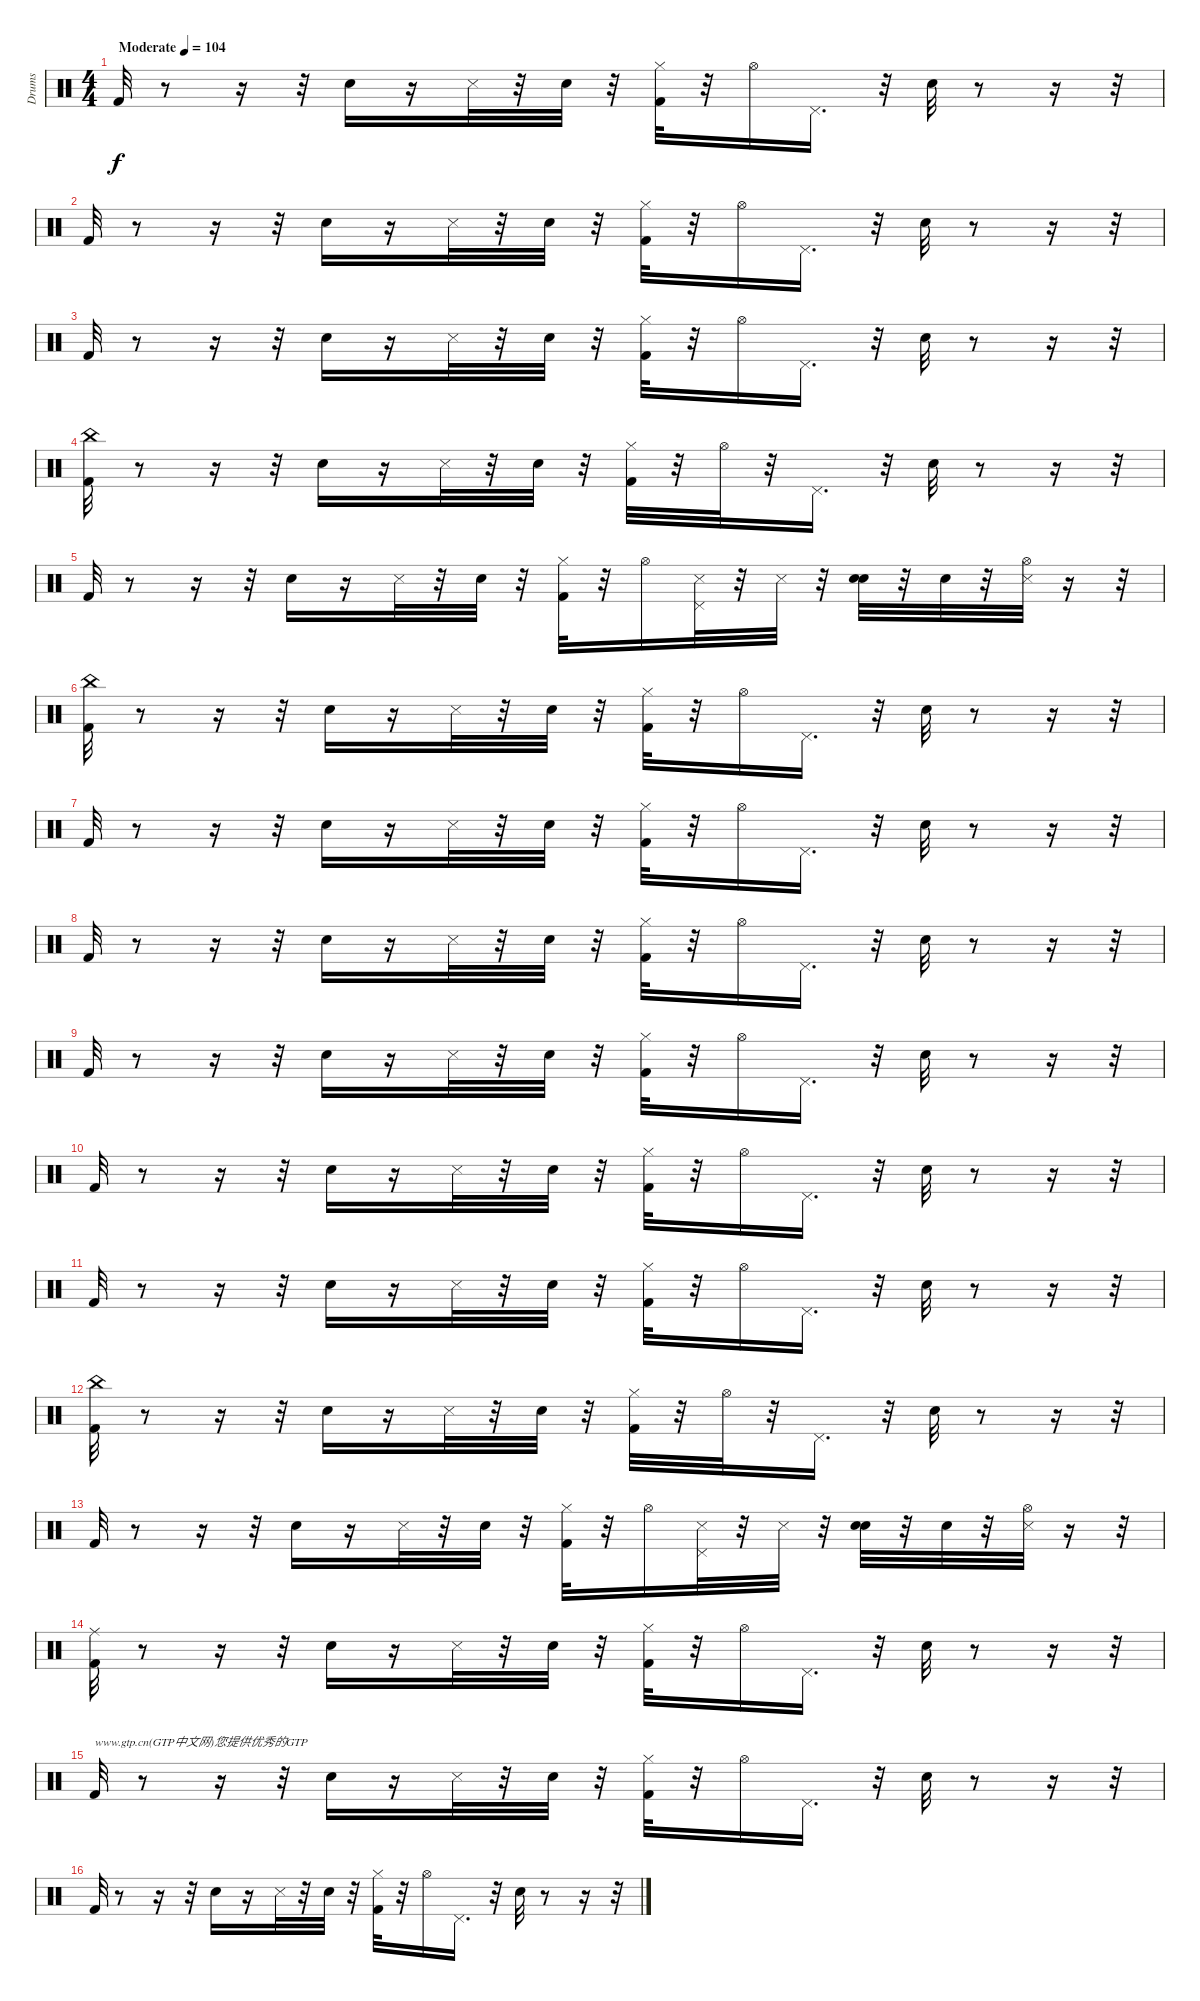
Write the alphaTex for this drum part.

\track ("Drums" "Drums") {instrument percussion}
\staff {score}
\articulation defaults
\ts (4 4)
\tempo (104 "Moderate")
\clef neutral
\ks c "Kick (hit) 2".32{dy f}
r.8 r.16 r.32 "Snare (hit) 2".16 r.16 "Snare (side stick) 3".32 r.32 "Electric Snare (hit)".32 r.32 ("Kick (hit) 2" "Hi-Hat (closed)").32 r.32 "Hi-Hat (open)".16 "Pedal Hi-Hat (hit)".16{d} r.32 "Snare (hit) 2".32 r.8 r.16 r.32 |
"Kick (hit) 2".32 r.8 r.16 r.32 "Snare (hit) 2".16 r.16 "Snare (side stick) 3".32 r.32 "Electric Snare (hit)".32 r.32 ("Kick (hit) 2" "Hi-Hat (closed)").32 r.32 "Hi-Hat (open)".16 "Pedal Hi-Hat (hit)".16{d} r.32 "Snare (hit) 2".32 r.8 r.16 r.32 |
"Kick (hit) 2".32 r.8 r.16 r.32 "Snare (hit) 2".16 r.16 "Snare (side stick) 3".32 r.32 "Electric Snare (hit)".32 r.32 ("Kick (hit) 2" "Hi-Hat (closed)").32 r.32 "Hi-Hat (open)".16 "Pedal Hi-Hat (hit)".16{d} r.32 "Snare (hit) 2".32 r.8 r.16 r.32 |
("Kick (hit) 2" "China (hit)").32 r.8 r.16 r.32 "Snare (hit) 2".16 r.16 "Snare (side stick) 3".32 r.32 "Electric Snare (hit)".32 r.32 ("Kick (hit) 2" "Hi-Hat (closed)").32 r.32 "Hi-Hat (open)".32 r.32 "Pedal Hi-Hat (hit)".16{d} r.32 "Snare (hit) 2".32 r.8 r.16 r.32 |
"Kick (hit) 2".32 r.8 r.16 r.32 "Snare (hit) 2".16 r.16 "Snare (side stick) 3".32 r.32 "Electric Snare (hit)".32 r.32 ("Kick (hit) 2" "Hi-Hat (closed)").32 r.32 "Hi-Hat (open)".16 ("Snare (side stick) 3" "Pedal Hi-Hat (hit)").32 r.32 "Snare (side stick) 3".32 r.32 ("Snare (hit) 2" "Electric Snare (hit)").32 r.32 "Electric Snare (hit)".32 r.32 ("Snare (side stick) 3" "Hi-Hat (open)").32 r.16 r.32 |
("Kick (hit) 2" "China (hit)").32 r.8 r.16 r.32 "Snare (hit) 2".16 r.16 "Snare (side stick) 3".32 r.32 "Electric Snare (hit)".32 r.32 ("Kick (hit) 2" "Hi-Hat (closed)").32 r.32 "Hi-Hat (open)".16 "Pedal Hi-Hat (hit)".16{d} r.32 "Snare (hit) 2".32 r.8 r.16 r.32 |
"Kick (hit) 2".32 r.8 r.16 r.32 "Snare (hit) 2".16 r.16 "Snare (side stick) 3".32 r.32 "Electric Snare (hit)".32 r.32 ("Kick (hit) 2" "Hi-Hat (closed)").32 r.32 "Hi-Hat (open)".16 "Pedal Hi-Hat (hit)".16{d} r.32 "Snare (hit) 2".32 r.8 r.16 r.32 |
"Kick (hit) 2".32 r.8 r.16 r.32 "Snare (hit) 2".16 r.16 "Snare (side stick) 3".32 r.32 "Electric Snare (hit)".32 r.32 ("Kick (hit) 2" "Hi-Hat (closed)").32 r.32 "Hi-Hat (open)".16 "Pedal Hi-Hat (hit)".16{d} r.32 "Snare (hit) 2".32 r.8 r.16 r.32 |
"Kick (hit) 2".32 r.8 r.16 r.32 "Snare (hit) 2".16 r.16 "Snare (side stick) 3".32 r.32 "Electric Snare (hit)".32 r.32 ("Kick (hit) 2" "Hi-Hat (closed)").32 r.32 "Hi-Hat (open)".16 "Pedal Hi-Hat (hit)".16{d} r.32 "Snare (hit) 2".32 r.8 r.16 r.32 |
"Kick (hit) 2".32 r.8 r.16 r.32 "Snare (hit) 2".16 r.16 "Snare (side stick) 3".32 r.32 "Electric Snare (hit)".32 r.32 ("Kick (hit) 2" "Hi-Hat (closed)").32 r.32 "Hi-Hat (open)".16 "Pedal Hi-Hat (hit)".16{d} r.32 "Snare (hit) 2".32 r.8 r.16 r.32 |
"Kick (hit) 2".32 r.8 r.16 r.32 "Snare (hit) 2".16 r.16 "Snare (side stick) 3".32 r.32 "Electric Snare (hit)".32 r.32 ("Kick (hit) 2" "Hi-Hat (closed)").32 r.32 "Hi-Hat (open)".16 "Pedal Hi-Hat (hit)".16{d} r.32 "Snare (hit) 2".32 r.8 r.16 r.32 |
("Kick (hit) 2" "China (hit)").32 r.8 r.16 r.32 "Snare (hit) 2".16 r.16 "Snare (side stick) 3".32 r.32 "Electric Snare (hit)".32 r.32 ("Kick (hit) 2" "Hi-Hat (closed)").32 r.32 "Hi-Hat (open)".32 r.32 "Pedal Hi-Hat (hit)".16{d} r.32 "Snare (hit) 2".32 r.8 r.16 r.32 |
"Kick (hit) 2".32 r.8 r.16 r.32 "Snare (hit) 2".16 r.16 "Snare (side stick) 3".32 r.32 "Electric Snare (hit)".32 r.32 ("Kick (hit) 2" "Hi-Hat (closed)").32 r.32 "Hi-Hat (open)".16 ("Snare (side stick) 3" "Pedal Hi-Hat (hit)").32 r.32 "Snare (side stick) 3".32 r.32 ("Snare (hit) 2" "Electric Snare (hit)").32 r.32 "Electric Snare (hit)".32 r.32 ("Snare (side stick) 3" "Hi-Hat (open)").32 r.16 r.32 |
("Kick (hit) 2" "Ride (middle)").32 r.8 r.16 r.32 "Snare (hit) 2".16 r.16 "Snare (side stick) 3".32 r.32 "Electric Snare (hit)".32 r.32 ("Kick (hit) 2" "Hi-Hat (closed)").32 r.32 "Hi-Hat (open)".16 "Pedal Hi-Hat (hit)".16{d} r.32 "Snare (hit) 2".32 r.8 r.16 r.32 |
"Kick (hit) 2".32{txt "www.gtp.cn(GTP中文网)您提供优秀的GTP"} r.8 r.16 r.32 "Snare (hit) 2".16 r.16 "Snare (side stick) 3".32 r.32 "Electric Snare (hit)".32 r.32 ("Kick (hit) 2" "Hi-Hat (closed)").32 r.32 "Hi-Hat (open)".16 "Pedal Hi-Hat (hit)".16{d} r.32 "Snare (hit) 2".32 r.8 r.16 r.32 |
"Kick (hit) 2".32 r.8 r.16 r.32 "Snare (hit) 2".16 r.16 "Snare (side stick) 3".32 r.32 "Electric Snare (hit)".32 r.32 ("Kick (hit) 2" "Hi-Hat (closed)").32 r.32 "Hi-Hat (open)".16 "Pedal Hi-Hat (hit)".16{d} r.32 "Snare (hit) 2".32 r.8 r.16 r.32
